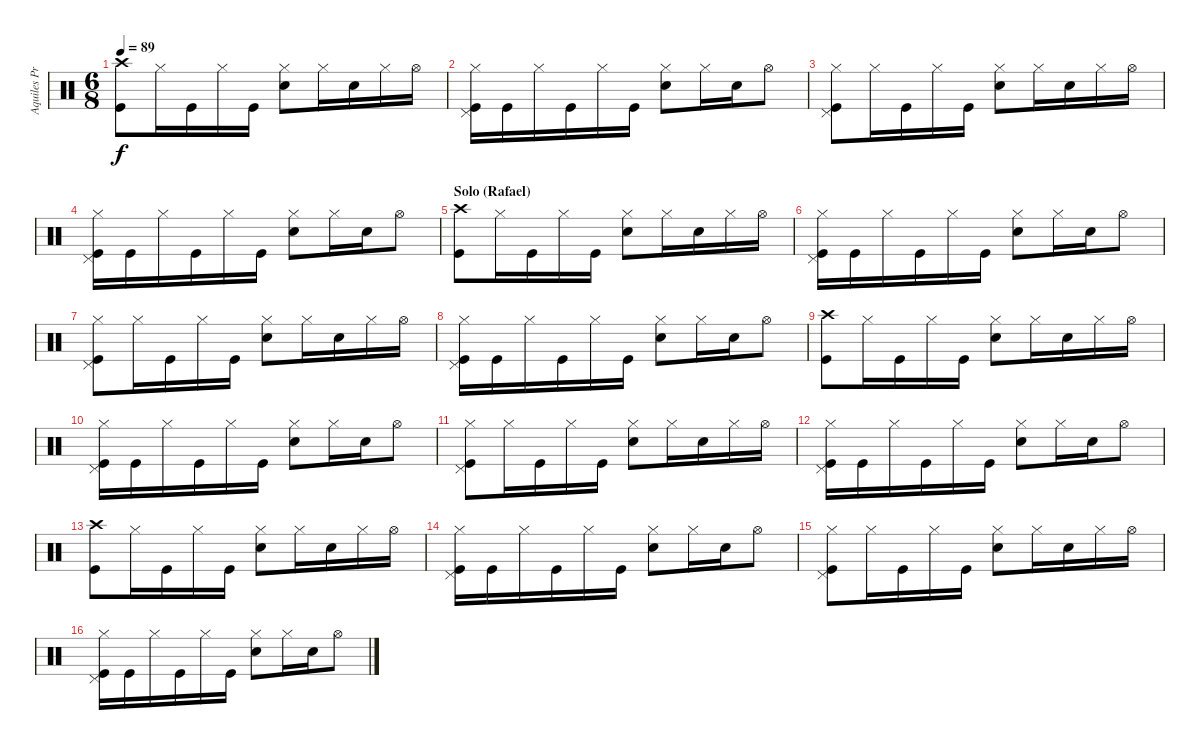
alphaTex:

\track ("Aquiles Priester" "Aquiles Pr") {instrument percussion}
\staff {score}
\articulation defaults
\ts (6 8)
\tempo 89
\clef neutral
\ks c
("Crash high (hit)" "Kick (hit)").8{dy f} "Hi-Hat (closed)".16 "Kick (hit)".16 "Hi-Hat (closed)".16 "Kick (hit)".16 ("Hi-Hat (closed)" "Electric Snare (hit)").8 "Hi-Hat (closed)".16 "Electric Snare (hit)".16 "Hi-Hat (closed)".16 "Hi-Hat (open)".16 |
("Hi-Hat (closed)" "Pedal Hi-Hat (hit)" "Kick (hit)").16 "Kick (hit)".16 "Hi-Hat (closed)".16 "Kick (hit)".16 "Hi-Hat (closed)".16 "Kick (hit)".16 ("Hi-Hat (closed)" "Electric Snare (hit)").8 "Hi-Hat (closed)".16 "Electric Snare (hit)".16 "Hi-Hat (open)".8 |
("Hi-Hat (closed)" "Pedal Hi-Hat (hit)" "Kick (hit)").8 "Hi-Hat (closed)".16 "Kick (hit)".16 "Hi-Hat (closed)".16 "Kick (hit)".16 ("Hi-Hat (closed)" "Electric Snare (hit)").8 "Hi-Hat (closed)".16 "Electric Snare (hit)".16 "Hi-Hat (closed)".16 "Hi-Hat (open)".16 |
("Hi-Hat (closed)" "Pedal Hi-Hat (hit)" "Kick (hit)").16 "Kick (hit)".16 "Hi-Hat (closed)".16 "Kick (hit)".16 "Hi-Hat (closed)".16 "Kick (hit)".16 ("Hi-Hat (closed)" "Electric Snare (hit)").8 "Hi-Hat (closed)".16 "Electric Snare (hit)".16 "Hi-Hat (open)".8 |
\section ("" "Solo (Rafael)")
("Crash high (hit)" "Kick (hit)").8 "Hi-Hat (closed)".16 "Kick (hit)".16 "Hi-Hat (closed)".16 "Kick (hit)".16 ("Hi-Hat (closed)" "Electric Snare (hit)").8 "Hi-Hat (closed)".16 "Electric Snare (hit)".16 "Hi-Hat (closed)".16 "Hi-Hat (open)".16 |
("Hi-Hat (closed)" "Pedal Hi-Hat (hit)" "Kick (hit)").16 "Kick (hit)".16 "Hi-Hat (closed)".16 "Kick (hit)".16 "Hi-Hat (closed)".16 "Kick (hit)".16 ("Hi-Hat (closed)" "Electric Snare (hit)").8 "Hi-Hat (closed)".16 "Electric Snare (hit)".16 "Hi-Hat (open)".8 |
("Hi-Hat (closed)" "Pedal Hi-Hat (hit)" "Kick (hit)").8 "Hi-Hat (closed)".16 "Kick (hit)".16 "Hi-Hat (closed)".16 "Kick (hit)".16 ("Hi-Hat (closed)" "Electric Snare (hit)").8 "Hi-Hat (closed)".16 "Electric Snare (hit)".16 "Hi-Hat (closed)".16 "Hi-Hat (open)".16 |
("Hi-Hat (closed)" "Pedal Hi-Hat (hit)" "Kick (hit)").16 "Kick (hit)".16 "Hi-Hat (closed)".16 "Kick (hit)".16 "Hi-Hat (closed)".16 "Kick (hit)".16 ("Hi-Hat (closed)" "Electric Snare (hit)").8 "Hi-Hat (closed)".16 "Electric Snare (hit)".16 "Hi-Hat (open)".8 |
("Crash high (hit)" "Kick (hit)").8 "Hi-Hat (closed)".16 "Kick (hit)".16 "Hi-Hat (closed)".16 "Kick (hit)".16 ("Hi-Hat (closed)" "Electric Snare (hit)").8 "Hi-Hat (closed)".16 "Electric Snare (hit)".16 "Hi-Hat (closed)".16 "Hi-Hat (open)".16 |
("Hi-Hat (closed)" "Pedal Hi-Hat (hit)" "Kick (hit)").16 "Kick (hit)".16 "Hi-Hat (closed)".16 "Kick (hit)".16 "Hi-Hat (closed)".16 "Kick (hit)".16 ("Hi-Hat (closed)" "Electric Snare (hit)").8 "Hi-Hat (closed)".16 "Electric Snare (hit)".16 "Hi-Hat (open)".8 |
("Hi-Hat (closed)" "Pedal Hi-Hat (hit)" "Kick (hit)").8 "Hi-Hat (closed)".16 "Kick (hit)".16 "Hi-Hat (closed)".16 "Kick (hit)".16 ("Hi-Hat (closed)" "Electric Snare (hit)").8 "Hi-Hat (closed)".16 "Electric Snare (hit)".16 "Hi-Hat (closed)".16 "Hi-Hat (open)".16 |
("Hi-Hat (closed)" "Pedal Hi-Hat (hit)" "Kick (hit)").16 "Kick (hit)".16 "Hi-Hat (closed)".16 "Kick (hit)".16 "Hi-Hat (closed)".16 "Kick (hit)".16 ("Hi-Hat (closed)" "Electric Snare (hit)").8 "Hi-Hat (closed)".16 "Electric Snare (hit)".16 "Hi-Hat (open)".8 |
("Crash high (hit)" "Kick (hit)").8 "Hi-Hat (closed)".16 "Kick (hit)".16 "Hi-Hat (closed)".16 "Kick (hit)".16 ("Hi-Hat (closed)" "Electric Snare (hit)").8 "Hi-Hat (closed)".16 "Electric Snare (hit)".16 "Hi-Hat (closed)".16 "Hi-Hat (open)".16 |
("Hi-Hat (closed)" "Pedal Hi-Hat (hit)" "Kick (hit)").16{volume 10} "Kick (hit)".16 "Hi-Hat (closed)".16 "Kick (hit)".16 "Hi-Hat (closed)".16 "Kick (hit)".16 ("Hi-Hat (closed)" "Electric Snare (hit)").8 "Hi-Hat (closed)".16 "Electric Snare (hit)".16 "Hi-Hat (open)".8 |
("Hi-Hat (closed)" "Pedal Hi-Hat (hit)" "Kick (hit)").8 "Hi-Hat (closed)".16 "Kick (hit)".16 "Hi-Hat (closed)".16 "Kick (hit)".16 ("Hi-Hat (closed)" "Electric Snare (hit)").8 "Hi-Hat (closed)".16 "Electric Snare (hit)".16 "Hi-Hat (closed)".16 "Hi-Hat (open)".16 |
("Hi-Hat (closed)" "Pedal Hi-Hat (hit)" "Kick (hit)").16 "Kick (hit)".16 "Hi-Hat (closed)".16 "Kick (hit)".16 "Hi-Hat (closed)".16 "Kick (hit)".16 ("Hi-Hat (closed)" "Electric Snare (hit)").8 "Hi-Hat (closed)".16 "Electric Snare (hit)".16 "Hi-Hat (open)".8
